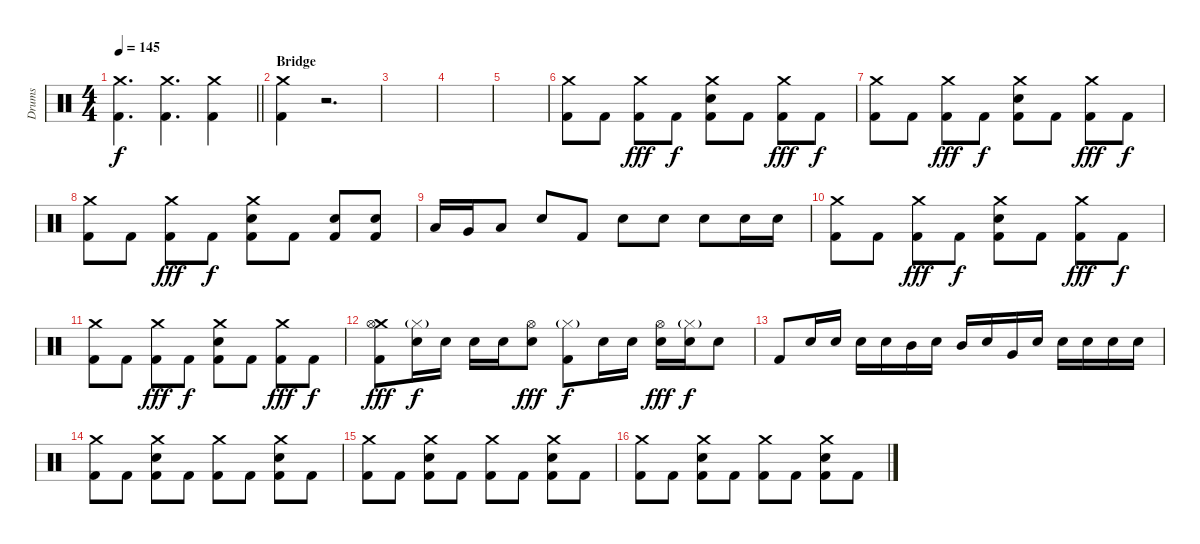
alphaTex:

\track ("Drums" "Drums") {instrument percussion}
\staff {score}
\articulation defaults
\ts (4 4)
\tempo 145
\clef neutral
\barLineRight lightlight
\ks c
("Crash medium (hit)" "Kick (hit) 2").4{d dy f} ("Crash medium (hit)" "Kick (hit) 2").4{d} ("Crash medium (hit)" "Kick (hit) 2").4 |
\section ("" "Bridge")
("Crash medium (hit)" "Kick (hit) 2").4 r.2{d} |
|
|
|
("Crash medium (hit)" "Kick (hit) 2").8 "Kick (hit) 2".8 ("Crash medium (hit)" "Kick (hit) 2").8{dy fff} "Kick (hit) 2".8{dy f} ("Crash medium (hit)" "Electric Snare (hit)" "Kick (hit) 2").8 "Kick (hit) 2".8 ("Crash medium (hit)" "Kick (hit) 2").8{dy fff} "Kick (hit) 2".8{dy f} |
("Crash medium (hit)" "Kick (hit) 2").8 "Kick (hit) 2".8 ("Crash medium (hit)" "Kick (hit) 2").8{dy fff} "Kick (hit) 2".8{dy f} ("Crash medium (hit)" "Electric Snare (hit)" "Kick (hit) 2").8 "Kick (hit) 2".8 ("Crash medium (hit)" "Kick (hit) 2").8{dy fff} "Kick (hit) 2".8{dy f} |
("Crash medium (hit)" "Kick (hit) 2").8 "Kick (hit) 2".8 ("Crash medium (hit)" "Kick (hit) 2").8{dy fff} "Kick (hit) 2".8{dy f} ("Crash medium (hit)" "Electric Snare (hit)" "Kick (hit) 2").8 "Kick (hit) 2".8 ("Electric Snare (hit)" "Kick (hit) 2").8 ("Electric Snare (hit)" "Kick (hit) 2").8 |
"Low Tom (hit)".16 "Very Low Tom (hit)".16 "Low Tom (hit)".8 "Electric Snare (hit)".8 "Kick (hit) 2".8 "Electric Snare (hit)".8 "Electric Snare (hit)".8 "Electric Snare (hit)".8 "Electric Snare (hit)".16 "Electric Snare (hit)".16 |
("Crash medium (hit)" "Kick (hit) 2").8 "Kick (hit) 2".8 ("Crash medium (hit)" "Kick (hit) 2").8{dy fff} "Kick (hit) 2".8{dy f} ("Crash medium (hit)" "Electric Snare (hit)" "Kick (hit) 2").8 "Kick (hit) 2".8 ("Crash medium (hit)" "Kick (hit) 2").8{dy fff} "Kick (hit) 2".8{dy f} |
("Crash medium (hit)" "Kick (hit) 2").8 "Kick (hit) 2".8 ("Crash medium (hit)" "Kick (hit) 2").8{dy fff} "Kick (hit) 2".8{dy f} ("Crash medium (hit)" "Electric Snare (hit)" "Kick (hit) 2").8 "Kick (hit) 2".8 ("Crash medium (hit)" "Kick (hit) 2").8{dy fff} "Kick (hit) 2".8{dy f} |
("Crash medium (hit)" "Hi-Hat (open)" "Kick (hit) 2").8{dy fff} ("Hi-Hat (closed)"{g} "Electric Snare (hit)").16{dy f} "Electric Snare (hit)".16 "Electric Snare (hit)".16 "Electric Snare (hit)".16 ("Hi-Hat (open)" "Electric Snare (hit)").8{dy fff} ("Hi-Hat (closed)"{g} "Kick (hit) 2").8{dy f} "Electric Snare (hit)".16 "Electric Snare (hit)".16 ("Hi-Hat (open)" "Electric Snare (hit)").16{dy fff} ("Hi-Hat (closed)"{g} "Electric Snare (hit)").16{dy f} "Electric Snare (hit)".8 |
"Kick (hit) 2".8 "Electric Snare (hit)".16 "Electric Snare (hit)".16 "Electric Snare (hit)".16 "Electric Snare (hit)".16 "Mid Tom (hit)".16 "Electric Snare (hit)".16 "Mid Tom (hit)".16 "Electric Snare (hit)".16 "Very Low Tom (hit)".16 "Electric Snare (hit)".16 "Electric Snare (hit)".16 "Electric Snare (hit)".16 "Electric Snare (hit)".16 "Electric Snare (hit)".16 |
("Crash medium (hit)" "Kick (hit) 2").8 "Kick (hit) 2".8 ("Crash medium (hit)" "Electric Snare (hit)" "Kick (hit) 2").8 "Kick (hit) 2".8 ("Crash medium (hit)" "Kick (hit) 2").8 "Kick (hit) 2".8 ("Crash medium (hit)" "Electric Snare (hit)" "Kick (hit) 2").8 "Kick (hit) 2".8 |
("Crash medium (hit)" "Kick (hit) 2").8 "Kick (hit) 2".8 ("Crash medium (hit)" "Electric Snare (hit)" "Kick (hit) 2").8 "Kick (hit) 2".8 ("Crash medium (hit)" "Kick (hit) 2").8 "Kick (hit) 2".8 ("Crash medium (hit)" "Electric Snare (hit)" "Kick (hit) 2").8 "Kick (hit) 2".8 |
("Crash medium (hit)" "Kick (hit) 2").8 "Kick (hit) 2".8 ("Crash medium (hit)" "Electric Snare (hit)" "Kick (hit) 2").8 "Kick (hit) 2".8 ("Crash medium (hit)" "Kick (hit) 2").8 "Kick (hit) 2".8 ("Crash medium (hit)" "Electric Snare (hit)" "Kick (hit) 2").8 "Kick (hit) 2".8
